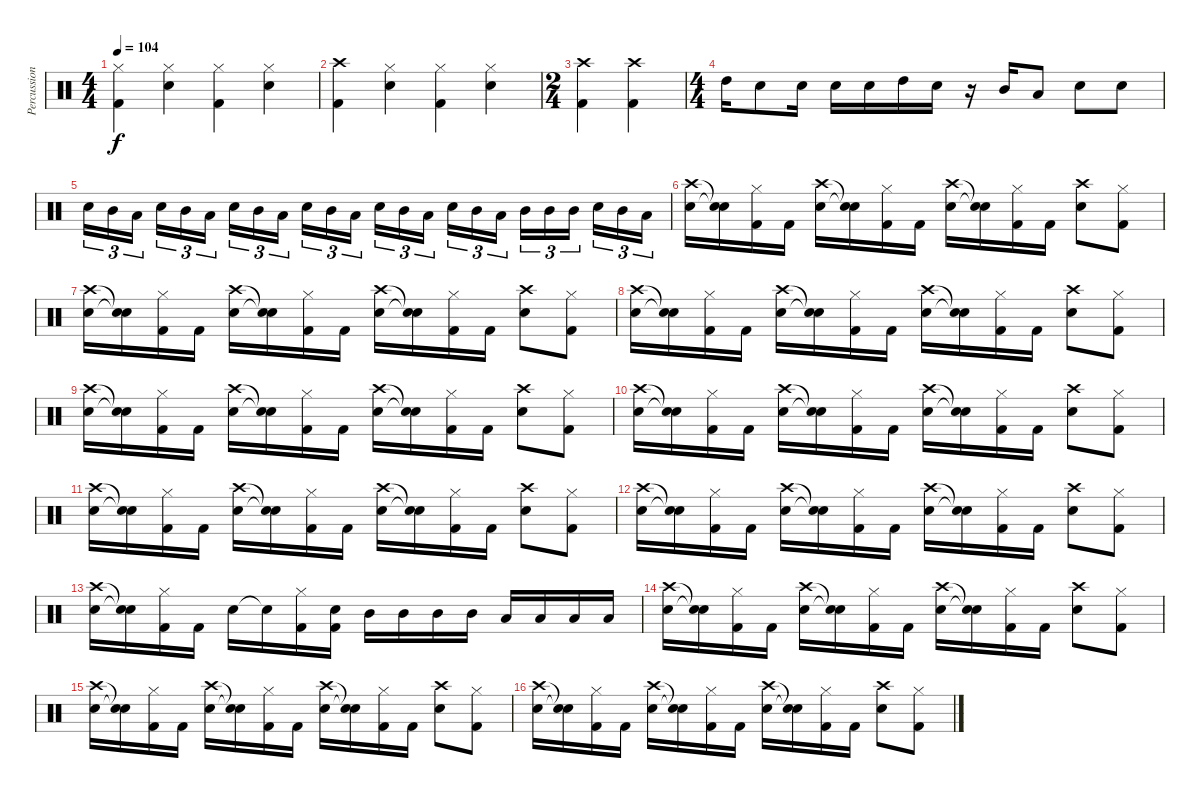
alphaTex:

\track ("Percussion" "Percussion") {instrument percussion}
\staff {score}
\articulation defaults
\ts (4 4)
\tempo 104
\clef neutral
\ks c
("Hi-Hat (closed)" "Kick (hit) 2").4{dy f} ("Hi-Hat (closed)" "Snare (hit) 2").4 ("Hi-Hat (closed)" "Kick (hit) 2").4 ("Hi-Hat (closed)" "Snare (hit) 2").4 |
("Crash high (hit)" "Kick (hit) 2").4 ("Hi-Hat (closed)" "Snare (hit) 2").4 ("Hi-Hat (closed)" "Kick (hit) 2").4 ("Hi-Hat (closed)" "Snare (hit) 2").4 |
\ts (2 4)
("Crash high (hit)" "Kick (hit) 2").4 ("Crash high (hit)" "Kick (hit) 2").4 |
\ts (4 4)
"High Tom (hit)".16 "Snare (hit) 2".8 "Snare (hit) 2".16 "Snare (hit) 2".16 "Snare (hit) 2".16 "High Tom (hit)".16 "Snare (hit) 2".16 r.16 "Mid Tom (hit)".16 "Low Tom (hit)".8 "Snare (hit) 2".8 "Snare (hit) 2".8 |
"Snare (hit) 2".16{tu (3 2)} "Mid Tom (hit)".16{tu (3 2)} "Low Tom (hit)".16{tu (3 2)} "Snare (hit) 2".16{tu (3 2)} "Mid Tom (hit)".16{tu (3 2)} "Low Tom (hit)".16{tu (3 2)} "Snare (hit) 2".16{tu (3 2)} "Mid Tom (hit)".16{tu (3 2)} "Low Tom (hit)".16{tu (3 2)} "Snare (hit) 2".16{tu (3 2)} "Mid Tom (hit)".16{tu (3 2)} "Low Tom (hit)".16{tu (3 2)} "Snare (hit) 2".16{tu (3 2)} "Mid Tom (hit)".16{tu (3 2)} "Low Tom (hit)".16{tu (3 2)} "Snare (hit) 2".16{tu (3 2)} "Mid Tom (hit)".16{tu (3 2)} "Low Tom (hit)".16{tu (3 2)} "Mid Tom (hit)".16{tu (3 2)} "Mid Tom (hit)".16{tu (3 2)} "Mid Tom (hit)".16{tu (3 2)} "Snare (hit) 2".16{tu (3 2)} "Mid Tom (hit)".16{tu (3 2)} "Low Tom (hit)".16{tu (3 2)} |
("Crash high (hit)" "Snare (hit) 2").16 ("Snare (hit)"{t} "Snare (hit)"{t}).16 ("Hi-Hat (closed)" "Kick (hit) 2").16 "Kick (hit) 2".16 ("Crash high (hit)" "Snare (hit) 2").16 ("Snare (hit)"{t} "Snare (hit)"{t}).16 ("Hi-Hat (closed)" "Kick (hit) 2").16 "Kick (hit) 2".16 ("Crash high (hit)" "Snare (hit) 2").16 ("Snare (hit)"{t} "Snare (hit)"{t}).16 ("Hi-Hat (closed)" "Kick (hit) 2").16 "Kick (hit) 2".16 ("Crash high (hit)" "Snare (hit) 2").8 ("Hi-Hat (closed)" "Kick (hit) 2").8 |
("Crash high (hit)" "Snare (hit) 2").16 ("Snare (hit)"{t} "Snare (hit)"{t}).16 ("Hi-Hat (closed)" "Kick (hit) 2").16 "Kick (hit) 2".16 ("Crash high (hit)" "Snare (hit) 2").16 ("Snare (hit)"{t} "Snare (hit)"{t}).16 ("Hi-Hat (closed)" "Kick (hit) 2").16 "Kick (hit) 2".16 ("Crash high (hit)" "Snare (hit) 2").16 ("Snare (hit)"{t} "Snare (hit)"{t}).16 ("Hi-Hat (closed)" "Kick (hit) 2").16 "Kick (hit) 2".16 ("Crash high (hit)" "Snare (hit) 2").8 ("Hi-Hat (closed)" "Kick (hit) 2").8 |
("Crash high (hit)" "Snare (hit) 2").16 ("Snare (hit)"{t} "Snare (hit)"{t}).16 ("Hi-Hat (closed)" "Kick (hit) 2").16 "Kick (hit) 2".16 ("Crash high (hit)" "Snare (hit) 2").16 ("Snare (hit)"{t} "Snare (hit)"{t}).16 ("Hi-Hat (closed)" "Kick (hit) 2").16 "Kick (hit) 2".16 ("Crash high (hit)" "Snare (hit) 2").16 ("Snare (hit)"{t} "Snare (hit)"{t}).16 ("Hi-Hat (closed)" "Kick (hit) 2").16 "Kick (hit) 2".16 ("Crash high (hit)" "Snare (hit) 2").8 ("Hi-Hat (closed)" "Kick (hit) 2").8 |
("Crash high (hit)" "Snare (hit) 2").16 ("Snare (hit)"{t} "Snare (hit)"{t}).16 ("Hi-Hat (closed)" "Kick (hit) 2").16 "Kick (hit) 2".16 ("Crash high (hit)" "Snare (hit) 2").16 ("Snare (hit)"{t} "Snare (hit)"{t}).16 ("Hi-Hat (closed)" "Kick (hit) 2").16 "Kick (hit) 2".16 ("Crash high (hit)" "Snare (hit) 2").16 ("Snare (hit)"{t} "Snare (hit)"{t}).16 ("Hi-Hat (closed)" "Kick (hit) 2").16 "Kick (hit) 2".16 ("Crash high (hit)" "Snare (hit) 2").8 ("Hi-Hat (closed)" "Kick (hit) 2").8 |
("Crash high (hit)" "Snare (hit) 2").16 ("Snare (hit)"{t} "Snare (hit)"{t}).16 ("Hi-Hat (closed)" "Kick (hit) 2").16 "Kick (hit) 2".16 ("Crash high (hit)" "Snare (hit) 2").16 ("Snare (hit)"{t} "Snare (hit)"{t}).16 ("Hi-Hat (closed)" "Kick (hit) 2").16 "Kick (hit) 2".16 ("Crash high (hit)" "Snare (hit) 2").16 ("Snare (hit)"{t} "Snare (hit)"{t}).16 ("Hi-Hat (closed)" "Kick (hit) 2").16 "Kick (hit) 2".16 ("Crash high (hit)" "Snare (hit) 2").8 ("Hi-Hat (closed)" "Kick (hit) 2").8 |
("Crash high (hit)" "Snare (hit) 2").16 ("Snare (hit)"{t} "Snare (hit)"{t}).16 ("Hi-Hat (closed)" "Kick (hit) 2").16 "Kick (hit) 2".16 ("Crash high (hit)" "Snare (hit) 2").16 ("Snare (hit)"{t} "Snare (hit)"{t}).16 ("Hi-Hat (closed)" "Kick (hit) 2").16 "Kick (hit) 2".16 ("Crash high (hit)" "Snare (hit) 2").16 ("Snare (hit)"{t} "Snare (hit)"{t}).16 ("Hi-Hat (closed)" "Kick (hit) 2").16 "Kick (hit) 2".16 ("Crash high (hit)" "Snare (hit) 2").8 ("Hi-Hat (closed)" "Kick (hit) 2").8 |
("Crash high (hit)" "Snare (hit) 2").16 ("Snare (hit)"{t} "Snare (hit)"{t}).16 ("Hi-Hat (closed)" "Kick (hit) 2").16 "Kick (hit) 2".16 ("Crash high (hit)" "Snare (hit) 2").16 ("Snare (hit)"{t} "Snare (hit)"{t}).16 ("Hi-Hat (closed)" "Kick (hit) 2").16 "Kick (hit) 2".16 ("Crash high (hit)" "Snare (hit) 2").16 ("Snare (hit)"{t} "Snare (hit)"{t}).16 ("Hi-Hat (closed)" "Kick (hit) 2").16 "Kick (hit) 2".16 ("Crash high (hit)" "Snare (hit) 2").8 ("Hi-Hat (closed)" "Kick (hit) 2").8 |
("Crash high (hit)" "Snare (hit) 2").16 ("Snare (hit)"{t} "Snare (hit)"{t}).16 ("Hi-Hat (closed)" "Kick (hit) 2").16 "Kick (hit) 2".16 "Snare (hit) 2".16 "Snare (hit)"{t}.16 ("Hi-Hat (closed)" "Kick (hit) 2").16 ("Snare (hit) 2" "Kick (hit) 2").16 "Mid Tom (hit)".16 "Mid Tom (hit)".16 "Mid Tom (hit)".16 "Mid Tom (hit)".16 "Low Tom (hit)".16 "Low Tom (hit)".16 "Low Tom (hit)".16 "Low Tom (hit)".16 |
("Crash high (hit)" "Snare (hit) 2").16 ("Snare (hit)"{t} "Snare (hit)"{t}).16 ("Hi-Hat (closed)" "Kick (hit) 2").16 "Kick (hit) 2".16 ("Crash high (hit)" "Snare (hit) 2").16 ("Snare (hit)"{t} "Snare (hit)"{t}).16 ("Hi-Hat (closed)" "Kick (hit) 2").16 "Kick (hit) 2".16 ("Crash high (hit)" "Snare (hit) 2").16 ("Snare (hit)"{t} "Snare (hit)"{t}).16 ("Hi-Hat (closed)" "Kick (hit) 2").16 "Kick (hit) 2".16 ("Crash high (hit)" "Snare (hit) 2").8 ("Hi-Hat (closed)" "Kick (hit) 2").8 |
("Crash high (hit)" "Snare (hit) 2").16 ("Snare (hit)"{t} "Snare (hit)"{t}).16 ("Hi-Hat (closed)" "Kick (hit) 2").16 "Kick (hit) 2".16 ("Crash high (hit)" "Snare (hit) 2").16 ("Snare (hit)"{t} "Snare (hit)"{t}).16 ("Hi-Hat (closed)" "Kick (hit) 2").16 "Kick (hit) 2".16 ("Crash high (hit)" "Snare (hit) 2").16 ("Snare (hit)"{t} "Snare (hit)"{t}).16 ("Hi-Hat (closed)" "Kick (hit) 2").16 "Kick (hit) 2".16 ("Crash high (hit)" "Snare (hit) 2").8 ("Hi-Hat (closed)" "Kick (hit) 2").8 |
("Crash high (hit)" "Snare (hit) 2").16 ("Snare (hit)"{t} "Snare (hit)"{t}).16 ("Hi-Hat (closed)" "Kick (hit) 2").16 "Kick (hit) 2".16 ("Crash high (hit)" "Snare (hit) 2").16 ("Snare (hit)"{t} "Snare (hit)"{t}).16 ("Hi-Hat (closed)" "Kick (hit) 2").16 "Kick (hit) 2".16 ("Crash high (hit)" "Snare (hit) 2").16 ("Snare (hit)"{t} "Snare (hit)"{t}).16 ("Hi-Hat (closed)" "Kick (hit) 2").16 "Kick (hit) 2".16 ("Crash high (hit)" "Snare (hit) 2").8 ("Hi-Hat (closed)" "Kick (hit) 2").8
